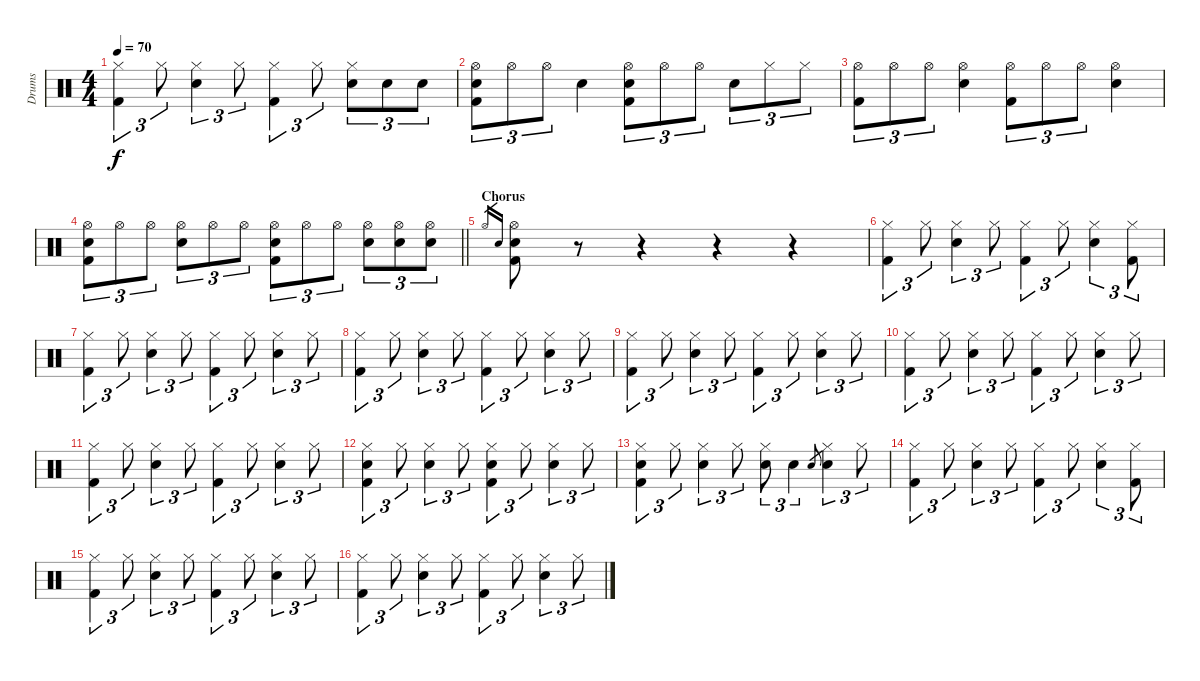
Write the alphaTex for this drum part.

\track ("Drums" "Drums") {instrument percussion}
\staff {score}
\articulation defaults
\ts (4 4)
\tempo 70
\clef neutral
\ks c
("Hi-Hat (closed)" "Kick (hit) 2").4{tu (3 2) dy f} "Hi-Hat (closed)".8{tu (3 2)} ("Hi-Hat (closed)" "Snare (hit) 2").4{tu (3 2)} "Hi-Hat (closed)".8{tu (3 2)} ("Hi-Hat (closed)" "Kick (hit) 2").4{tu (3 2)} "Hi-Hat (closed)".8{tu (3 2)} ("Hi-Hat (closed)" "Snare (hit) 2").8{tu (3 2)} "Snare (hit) 2".8{tu (3 2)} "Snare (hit) 2".8{tu (3 2)} |
("Hi-Hat (open)" "Snare (hit) 2" "Kick (hit) 2").8{tu (3 2)} "Hi-Hat (open)".8{tu (3 2)} "Hi-Hat (open)".8{tu (3 2)} "Snare (hit) 2".4 ("Hi-Hat (open)" "Snare (hit) 2" "Kick (hit) 2").8{tu (3 2)} "Hi-Hat (open)".8{tu (3 2)} "Hi-Hat (open)".8{tu (3 2)} "Snare (hit) 2".8{tu (3 2)} "Hi-Hat (closed)".8{tu (3 2)} "Hi-Hat (closed)".8{tu (3 2)} |
("Hi-Hat (open)" "Kick (hit) 2").8{tu (3 2)} "Hi-Hat (open)".8{tu (3 2)} "Hi-Hat (open)".8{tu (3 2)} ("Hi-Hat (open)" "Snare (hit) 2").4 ("Hi-Hat (open)" "Kick (hit) 2").8{tu (3 2)} "Hi-Hat (open)".8{tu (3 2)} "Hi-Hat (open)".8{tu (3 2)} ("Hi-Hat (open)" "Snare (hit) 2").4 |
\barLineRight lightlight
("Hi-Hat (open)" "Snare (hit) 2" "Kick (hit) 2").8{tu (3 2)} "Hi-Hat (open)".8{tu (3 2)} "Hi-Hat (open)".8{tu (3 2)} ("Hi-Hat (open)" "Snare (hit) 2").8{tu (3 2)} "Hi-Hat (open)".8{tu (3 2)} "Hi-Hat (open)".8{tu (3 2)} ("Hi-Hat (open)" "Snare (hit) 2" "Kick (hit) 2").8{tu (3 2)} "Hi-Hat (open)".8{tu (3 2)} "Hi-Hat (open)".8{tu (3 2)} ("Hi-Hat (open)" "Snare (hit) 2").8{tu (3 2)} ("Hi-Hat (open)" "Snare (hit) 2").8{tu (3 2)} ("Hi-Hat (open)" "Snare (hit) 2").8{tu (3 2)} |
\section ("" "Chorus")
"Hi-Hat (open)".16{gr} "Snare (hit) 2".16{gr} ("Hi-Hat (open)" "Snare (hit) 2" "Kick (hit) 2").8 r.8 r.4 r.4 r.4 |
("Hi-Hat (closed)" "Kick (hit) 2").4{tu (3 2)} "Hi-Hat (closed)".8{tu (3 2)} ("Hi-Hat (closed)" "Snare (hit) 2").4{tu (3 2)} "Hi-Hat (closed)".8{tu (3 2)} ("Hi-Hat (closed)" "Kick (hit) 2").4{tu (3 2)} "Hi-Hat (closed)".8{tu (3 2)} ("Hi-Hat (closed)" "Snare (hit) 2").4{tu (3 2)} ("Hi-Hat (closed)" "Kick (hit) 2").8{tu (3 2)} |
("Hi-Hat (closed)" "Kick (hit) 2").4{tu (3 2)} "Hi-Hat (closed)".8{tu (3 2)} ("Hi-Hat (closed)" "Snare (hit) 2").4{tu (3 2)} "Hi-Hat (closed)".8{tu (3 2)} ("Hi-Hat (closed)" "Kick (hit) 2").4{tu (3 2)} "Hi-Hat (closed)".8{tu (3 2)} ("Hi-Hat (closed)" "Snare (hit) 2").4{tu (3 2)} "Hi-Hat (closed)".8{tu (3 2)} |
("Hi-Hat (closed)" "Kick (hit) 2").4{tu (3 2)} "Hi-Hat (closed)".8{tu (3 2)} ("Hi-Hat (closed)" "Snare (hit) 2").4{tu (3 2)} "Hi-Hat (closed)".8{tu (3 2)} ("Hi-Hat (closed)" "Kick (hit) 2").4{tu (3 2)} "Hi-Hat (closed)".8{tu (3 2)} ("Hi-Hat (closed)" "Snare (hit) 2").4{tu (3 2)} "Hi-Hat (closed)".8{tu (3 2)} |
("Hi-Hat (closed)" "Kick (hit) 2").4{tu (3 2)} "Hi-Hat (closed)".8{tu (3 2)} ("Hi-Hat (closed)" "Snare (hit) 2").4{tu (3 2)} "Hi-Hat (closed)".8{tu (3 2)} ("Hi-Hat (closed)" "Kick (hit) 2").4{tu (3 2)} "Hi-Hat (closed)".8{tu (3 2)} ("Hi-Hat (closed)" "Snare (hit) 2").4{tu (3 2)} "Hi-Hat (closed)".8{tu (3 2)} |
("Hi-Hat (closed)" "Kick (hit) 2").4{tu (3 2)} "Hi-Hat (closed)".8{tu (3 2)} ("Hi-Hat (closed)" "Snare (hit) 2").4{tu (3 2)} "Hi-Hat (closed)".8{tu (3 2)} ("Hi-Hat (closed)" "Kick (hit) 2").4{tu (3 2)} "Hi-Hat (closed)".8{tu (3 2)} ("Hi-Hat (closed)" "Snare (hit) 2").4{tu (3 2)} "Hi-Hat (closed)".8{tu (3 2)} |
("Hi-Hat (closed)" "Kick (hit) 2").4{tu (3 2)} "Hi-Hat (closed)".8{tu (3 2)} ("Hi-Hat (closed)" "Snare (hit) 2").4{tu (3 2)} "Hi-Hat (closed)".8{tu (3 2)} ("Hi-Hat (closed)" "Kick (hit) 2").4{tu (3 2)} "Hi-Hat (closed)".8{tu (3 2)} ("Hi-Hat (closed)" "Snare (hit) 2").4{tu (3 2)} "Hi-Hat (closed)".8{tu (3 2)} |
("Hi-Hat (closed)" "Snare (hit) 2" "Kick (hit) 2").4{tu (3 2)} "Hi-Hat (closed)".8{tu (3 2)} ("Hi-Hat (closed)" "Snare (hit) 2").4{tu (3 2)} "Hi-Hat (closed)".8{tu (3 2)} ("Hi-Hat (closed)" "Snare (hit) 2" "Kick (hit) 2").4{tu (3 2)} "Hi-Hat (closed)".8{tu (3 2)} ("Hi-Hat (closed)" "Snare (hit) 2").4{tu (3 2)} "Hi-Hat (closed)".8{tu (3 2)} |
("Hi-Hat (closed)" "Snare (hit) 2" "Kick (hit) 2").4{tu (3 2)} "Hi-Hat (closed)".8{tu (3 2)} ("Hi-Hat (closed)" "Snare (hit) 2").4{tu (3 2)} "Hi-Hat (closed)".8{tu (3 2)} ("Hi-Hat (closed)" "Snare (hit) 2").8{tu (3 2)} "Snare (hit) 2".4{tu (3 2)} "Snare (hit) 2".8{gr} ("Hi-Hat (closed)" "Snare (hit) 2").4{tu (3 2)} "Hi-Hat (closed)".8{tu (3 2)} |
("Hi-Hat (closed)" "Kick (hit) 2").4{tu (3 2)} "Hi-Hat (closed)".8{tu (3 2)} ("Hi-Hat (closed)" "Snare (hit) 2").4{tu (3 2)} "Hi-Hat (closed)".8{tu (3 2)} ("Hi-Hat (closed)" "Kick (hit) 2").4{tu (3 2)} "Hi-Hat (closed)".8{tu (3 2)} ("Hi-Hat (closed)" "Snare (hit) 2").4{tu (3 2)} ("Hi-Hat (closed)" "Kick (hit) 2").8{tu (3 2)} |
("Hi-Hat (closed)" "Kick (hit) 2").4{tu (3 2)} "Hi-Hat (closed)".8{tu (3 2)} ("Hi-Hat (closed)" "Snare (hit) 2").4{tu (3 2)} "Hi-Hat (closed)".8{tu (3 2)} ("Hi-Hat (closed)" "Kick (hit) 2").4{tu (3 2)} "Hi-Hat (closed)".8{tu (3 2)} ("Hi-Hat (closed)" "Snare (hit) 2").4{tu (3 2)} "Hi-Hat (closed)".8{tu (3 2)} |
("Hi-Hat (closed)" "Kick (hit) 2").4{tu (3 2)} "Hi-Hat (closed)".8{tu (3 2)} ("Hi-Hat (closed)" "Snare (hit) 2").4{tu (3 2)} "Hi-Hat (closed)".8{tu (3 2)} ("Hi-Hat (closed)" "Kick (hit) 2").4{tu (3 2)} "Hi-Hat (closed)".8{tu (3 2)} ("Hi-Hat (closed)" "Snare (hit) 2").4{tu (3 2)} "Hi-Hat (closed)".8{tu (3 2)}
